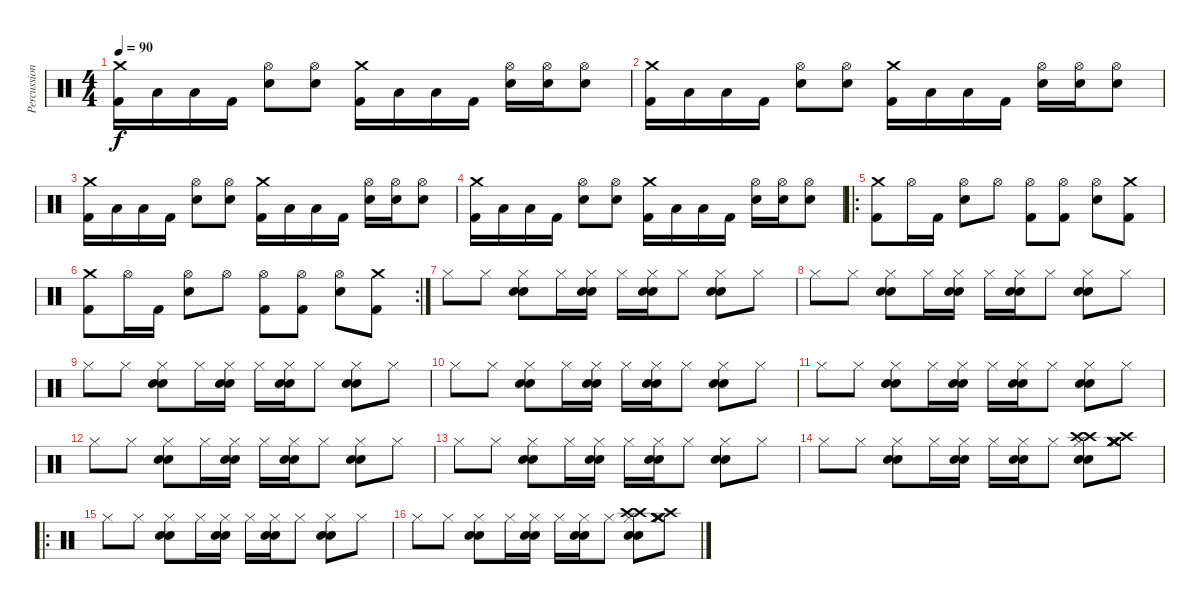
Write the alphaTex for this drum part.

\track ("Percussion" "Percussion") {instrument percussion}
\staff {score}
\articulation defaults
\ts (4 4)
\tempo 90
\clef neutral
\ks c
("Crash medium (hit)" "Kick (hit) 2").16{dy f} "Low Tom (hit)".16 "Low Floor Tom (hit)".16 "Kick (hit) 2".16 ("Hi-Hat (open)" "Electric Snare (hit)").8 ("Hi-Hat (open)" "Electric Snare (hit)").8 ("Crash medium (hit)" "Kick (hit) 2").16 "Low Tom (hit)".16 "Low Floor Tom (hit)".16 "Kick (hit) 2".16 ("Hi-Hat (open)" "Electric Snare (hit)").16 ("Hi-Hat (open)" "Electric Snare (hit)").16 ("Hi-Hat (open)" "Electric Snare (hit)").8 |
("Crash medium (hit)" "Kick (hit) 2").16 "Low Tom (hit)".16 "Low Floor Tom (hit)".16 "Kick (hit) 2".16 ("Hi-Hat (open)" "Electric Snare (hit)").8 ("Hi-Hat (open)" "Electric Snare (hit)").8 ("Crash medium (hit)" "Kick (hit) 2").16 "Low Tom (hit)".16 "Low Floor Tom (hit)".16 "Kick (hit) 2".16 ("Hi-Hat (open)" "Electric Snare (hit)").16 ("Hi-Hat (open)" "Electric Snare (hit)").16 ("Hi-Hat (open)" "Electric Snare (hit)").8 |
("Crash medium (hit)" "Kick (hit) 2").16 "Low Tom (hit)".16 "Low Floor Tom (hit)".16 "Kick (hit) 2".16 ("Hi-Hat (open)" "Electric Snare (hit)").8 ("Hi-Hat (open)" "Electric Snare (hit)").8 ("Crash medium (hit)" "Kick (hit) 2").16 "Low Tom (hit)".16 "Low Floor Tom (hit)".16 "Kick (hit) 2".16 ("Hi-Hat (open)" "Electric Snare (hit)").16 ("Hi-Hat (open)" "Electric Snare (hit)").16 ("Hi-Hat (open)" "Electric Snare (hit)").8 |
("Crash medium (hit)" "Kick (hit) 2").16 "Low Tom (hit)".16 "Low Floor Tom (hit)".16 "Kick (hit) 2".16 ("Hi-Hat (open)" "Electric Snare (hit)").8 ("Hi-Hat (open)" "Electric Snare (hit)").8 ("Crash medium (hit)" "Kick (hit) 2").16 "Low Tom (hit)".16 "Low Floor Tom (hit)".16 "Kick (hit) 2".16 ("Hi-Hat (open)" "Electric Snare (hit)").16 ("Hi-Hat (open)" "Electric Snare (hit)").16 ("Hi-Hat (open)" "Electric Snare (hit)").8 |
\ro
("Crash medium (hit)" "Kick (hit) 2").8 "Hi-Hat (open)".16 "Kick (hit) 2".16 ("Hi-Hat (open)" "Electric Snare (hit)").8 "Hi-Hat (open)".8 ("Hi-Hat (open)" "Kick (hit) 2").8 ("Hi-Hat (open)" "Kick (hit) 2").8 ("Hi-Hat (open)" "Electric Snare (hit)").8 ("Crash medium (hit)" "Kick (hit) 2").8 |
\rc 2
("Crash medium (hit)" "Kick (hit) 2").8 "Hi-Hat (open)".16 "Kick (hit) 2".16 ("Hi-Hat (open)" "Electric Snare (hit)").8 "Hi-Hat (open)".8 ("Hi-Hat (open)" "Kick (hit) 2").8 ("Hi-Hat (open)" "Kick (hit) 2").8 ("Hi-Hat (open)" "Electric Snare (hit)").8 ("Crash medium (hit)" "Kick (hit) 2").8 |
"Hi-Hat (closed)".8 "Hi-Hat (closed)".8 ("Hi-Hat (closed)" "Snare (hit) 2" "Snare (hit) 2").8 "Hi-Hat (closed)".16 ("Hi-Hat (closed)" "Snare (hit) 2" "Snare (hit) 2").16 "Hi-Hat (closed)".16 ("Hi-Hat (closed)" "Snare (hit) 2" "Snare (hit) 2").16 "Hi-Hat (closed)".8 ("Hi-Hat (closed)" "Snare (hit) 2" "Snare (hit) 2").8 "Hi-Hat (closed)".8 |
"Hi-Hat (closed)".8 "Hi-Hat (closed)".8 ("Hi-Hat (closed)" "Snare (hit) 2" "Snare (hit) 2").8 "Hi-Hat (closed)".16 ("Hi-Hat (closed)" "Snare (hit) 2" "Snare (hit) 2").16 "Hi-Hat (closed)".16 ("Hi-Hat (closed)" "Snare (hit) 2" "Snare (hit) 2").16 "Hi-Hat (closed)".8 ("Hi-Hat (closed)" "Snare (hit) 2" "Snare (hit) 2").8 "Hi-Hat (closed)".8 |
"Hi-Hat (closed)".8 "Hi-Hat (closed)".8 ("Hi-Hat (closed)" "Snare (hit) 2" "Snare (hit) 2").8 "Hi-Hat (closed)".16 ("Hi-Hat (closed)" "Snare (hit) 2" "Snare (hit) 2").16 "Hi-Hat (closed)".16 ("Hi-Hat (closed)" "Snare (hit) 2" "Snare (hit) 2").16 "Hi-Hat (closed)".8 ("Hi-Hat (closed)" "Snare (hit) 2" "Snare (hit) 2").8 "Hi-Hat (closed)".8 |
"Hi-Hat (closed)".8 "Hi-Hat (closed)".8 ("Hi-Hat (closed)" "Snare (hit) 2" "Snare (hit) 2").8 "Hi-Hat (closed)".16 ("Hi-Hat (closed)" "Snare (hit) 2" "Snare (hit) 2").16 "Hi-Hat (closed)".16 ("Hi-Hat (closed)" "Snare (hit) 2" "Snare (hit) 2").16 "Hi-Hat (closed)".8 ("Hi-Hat (closed)" "Snare (hit) 2" "Snare (hit) 2").8 "Hi-Hat (closed)".8 |
"Hi-Hat (closed)".8 "Hi-Hat (closed)".8 ("Hi-Hat (closed)" "Snare (hit) 2" "Snare (hit) 2").8 "Hi-Hat (closed)".16 ("Hi-Hat (closed)" "Snare (hit) 2" "Snare (hit) 2").16 "Hi-Hat (closed)".16 ("Hi-Hat (closed)" "Snare (hit) 2" "Snare (hit) 2").16 "Hi-Hat (closed)".8 ("Hi-Hat (closed)" "Snare (hit) 2" "Snare (hit) 2").8 "Hi-Hat (closed)".8 |
"Hi-Hat (closed)".8 "Hi-Hat (closed)".8 ("Hi-Hat (closed)" "Snare (hit) 2" "Snare (hit) 2").8 "Hi-Hat (closed)".16 ("Hi-Hat (closed)" "Snare (hit) 2" "Snare (hit) 2").16 "Hi-Hat (closed)".16 ("Hi-Hat (closed)" "Snare (hit) 2" "Snare (hit) 2").16 "Hi-Hat (closed)".8 ("Hi-Hat (closed)" "Snare (hit) 2" "Snare (hit) 2").8 "Hi-Hat (closed)".8 |
"Hi-Hat (closed)".8 "Hi-Hat (closed)".8 ("Hi-Hat (closed)" "Snare (hit) 2" "Snare (hit) 2").8 "Hi-Hat (closed)".16 ("Hi-Hat (closed)" "Snare (hit) 2" "Snare (hit) 2").16 "Hi-Hat (closed)".16 ("Hi-Hat (closed)" "Snare (hit) 2" "Snare (hit) 2").16 "Hi-Hat (closed)".8 ("Hi-Hat (closed)" "Snare (hit) 2" "Snare (hit) 2").8 "Hi-Hat (closed)".8 |
"Hi-Hat (closed)".8 "Hi-Hat (closed)".8 ("Hi-Hat (closed)" "Snare (hit) 2" "Snare (hit) 2").8 "Hi-Hat (closed)".16 ("Hi-Hat (closed)" "Snare (hit) 2" "Snare (hit) 2").16 "Hi-Hat (closed)".16 ("Hi-Hat (closed)" "Snare (hit) 2" "Snare (hit) 2").16 "Hi-Hat (closed)".8 ("Hi-Hat (closed)" "Snare (hit) 2" "Snare (hit) 2" "Crash high (hit)" "Crash high (hit)").8 ("Hi-Hat (closed)" "Crash medium (hit)" "Crash medium (hit)" "Crash medium (hit)" "Crash high (hit)").8 |
\ro "Hi-Hat (closed)".8 "Hi-Hat (closed)".8
("Hi-Hat (closed)" "Snare (hit) 2" "Snare (hit) 2").8 "Hi-Hat (closed)".16 ("Hi-Hat (closed)" "Snare (hit) 2" "Snare (hit) 2").16 "Hi-Hat (closed)".16 ("Hi-Hat (closed)" "Snare (hit) 2" "Snare (hit) 2").16 "Hi-Hat (closed)".8 ("Hi-Hat (closed)" "Snare (hit) 2" "Snare (hit) 2").8 "Hi-Hat (closed)".8 |
"Hi-Hat (closed)".8 "Hi-Hat (closed)".8 ("Hi-Hat (closed)" "Snare (hit) 2" "Snare (hit) 2").8 "Hi-Hat (closed)".16 ("Hi-Hat (closed)" "Snare (hit) 2" "Snare (hit) 2").16 "Hi-Hat (closed)".16 ("Hi-Hat (closed)" "Snare (hit) 2" "Snare (hit) 2").16 "Hi-Hat (closed)".8 ("Hi-Hat (closed)" "Snare (hit) 2" "Snare (hit) 2" "Crash high (hit)" "Crash high (hit)").8 ("Hi-Hat (closed)" "Crash medium (hit)" "Crash medium (hit)" "Crash medium (hit)" "Crash high (hit)").8
